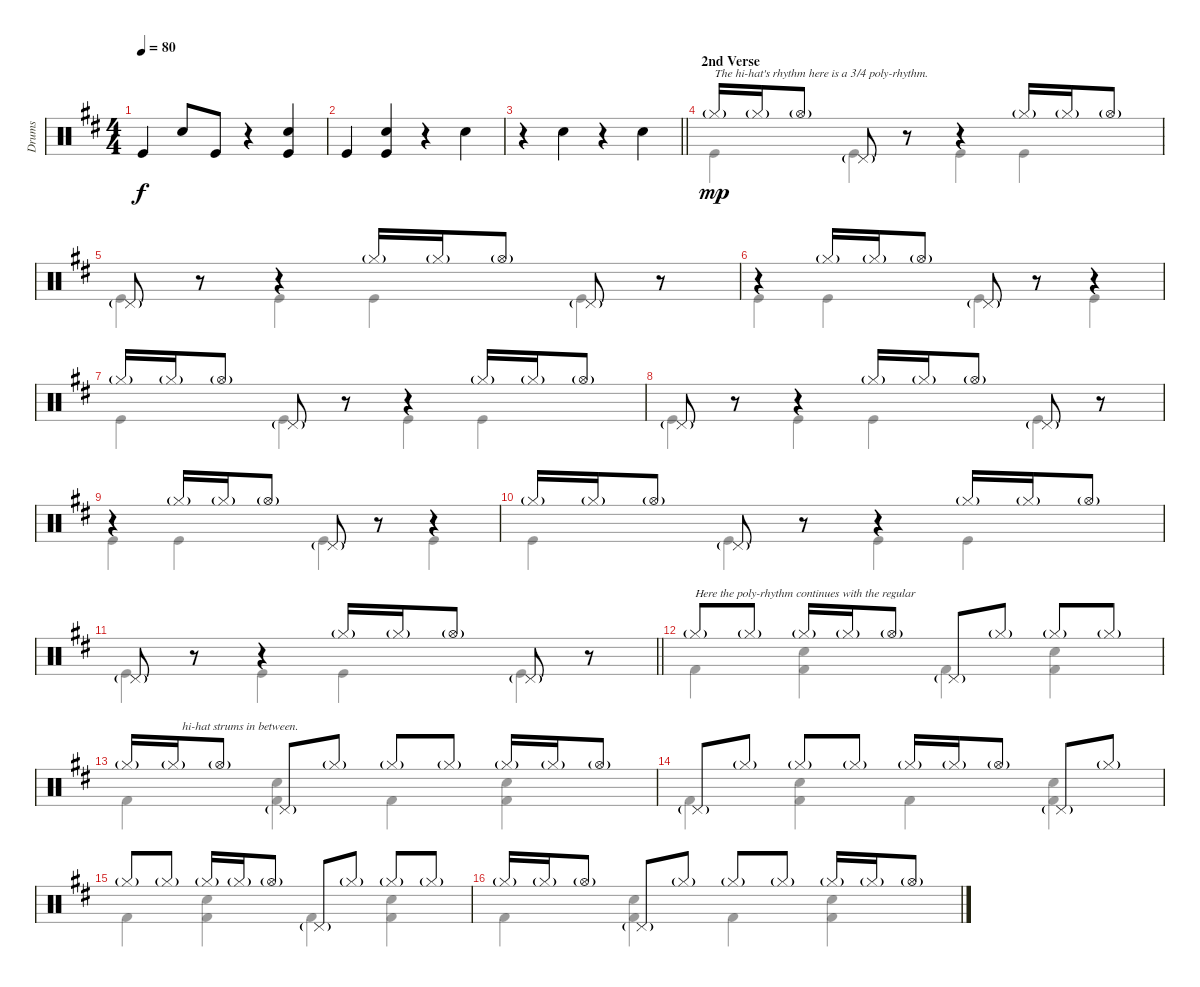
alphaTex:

\track ("Drums" "Drums") {instrument percussion}
\staff {score}
\articulation defaults
\voice
\ts (4 4)
\tempo 80
\clef neutral
\ks d "Kick (hit)".4{dy f} "Snare (hit) 2".8 "Kick (hit)".8
r.4 ("Snare (hit) 2" "Kick (hit)").4 |
"Kick (hit)".4 ("Snare (hit) 2" "Kick (hit)").4 r.4 "Snare (hit) 2".4 |
\barLineRight lightlight
r.4 "Snare (hit) 2".4 r.4 "Snare (hit) 2".4 |
\section ("" "2nd Verse")
"Hi-Hat (closed)"{g}.16{txt "The hi-hat's rhythm here is a 3/4 poly-rhythm." dy mp} "Hi-Hat (closed)"{g}.16 "Hi-Hat (open)"{g}.8 "Pedal Hi-Hat (hit)"{g}.8 r.8 r.4 "Hi-Hat (closed)"{g}.16 "Hi-Hat (closed)"{g}.16 "Hi-Hat (open)"{g}.8 |
"Pedal Hi-Hat (hit)"{g}.8 r.8 r.4 "Hi-Hat (closed)"{g}.16 "Hi-Hat (closed)"{g}.16 "Hi-Hat (open)"{g}.8 "Pedal Hi-Hat (hit)"{g}.8 r.8 |
r.4 "Hi-Hat (closed)"{g}.16 "Hi-Hat (closed)"{g}.16 "Hi-Hat (open)"{g}.8 "Pedal Hi-Hat (hit)"{g}.8 r.8 r.4 |
"Hi-Hat (closed)"{g}.16 "Hi-Hat (closed)"{g}.16 "Hi-Hat (open)"{g}.8 "Pedal Hi-Hat (hit)"{g}.8 r.8 r.4 "Hi-Hat (closed)"{g}.16 "Hi-Hat (closed)"{g}.16 "Hi-Hat (open)"{g}.8 |
"Pedal Hi-Hat (hit)"{g}.8 r.8 r.4 "Hi-Hat (closed)"{g}.16 "Hi-Hat (closed)"{g}.16 "Hi-Hat (open)"{g}.8 "Pedal Hi-Hat (hit)"{g}.8 r.8 |
r.4 "Hi-Hat (closed)"{g}.16 "Hi-Hat (closed)"{g}.16 "Hi-Hat (open)"{g}.8 "Pedal Hi-Hat (hit)"{g}.8 r.8 r.4 |
"Hi-Hat (closed)"{g}.16 "Hi-Hat (closed)"{g}.16 "Hi-Hat (open)"{g}.8 "Pedal Hi-Hat (hit)"{g}.8 r.8 r.4 "Hi-Hat (closed)"{g}.16 "Hi-Hat (closed)"{g}.16 "Hi-Hat (open)"{g}.8 |
\barLineRight lightlight "Pedal Hi-Hat (hit)"{g}.8
r.8 r.4 "Hi-Hat (closed)"{g}.16 "Hi-Hat (closed)"{g}.16 "Hi-Hat (open)"{g}.8 "Pedal Hi-Hat (hit)"{g}.8 r.8 |
"Hi-Hat (closed)"{g}.8{txt "Here the poly-rhythm continues with the regular"} "Hi-Hat (closed)"{g}.8 "Hi-Hat (closed)"{g}.16 "Hi-Hat (closed)"{g}.16 "Hi-Hat (open)"{g}.8 "Pedal Hi-Hat (hit)"{g}.8 "Hi-Hat (closed)"{g}.8 "Hi-Hat (closed)"{g}.8 "Hi-Hat (closed)"{g}.8 |
"Hi-Hat (closed)"{g}.16 "Hi-Hat (closed)"{g}.16{txt "   hi-hat strums in between."} "Hi-Hat (open)"{g}.8 "Pedal Hi-Hat (hit)"{g}.8 "Hi-Hat (closed)"{g}.8 "Hi-Hat (closed)"{g}.8 "Hi-Hat (closed)"{g}.8 "Hi-Hat (closed)"{g}.16 "Hi-Hat (closed)"{g}.16 "Hi-Hat (open)"{g}.8 |
"Pedal Hi-Hat (hit)"{g}.8 "Hi-Hat (closed)"{g}.8 "Hi-Hat (closed)"{g}.8 "Hi-Hat (closed)"{g}.8 "Hi-Hat (closed)"{g}.16 "Hi-Hat (closed)"{g}.16 "Hi-Hat (open)"{g}.8 "Pedal Hi-Hat (hit)"{g}.8 "Hi-Hat (closed)"{g}.8 |
"Hi-Hat (closed)"{g}.8 "Hi-Hat (closed)"{g}.8 "Hi-Hat (closed)"{g}.16 "Hi-Hat (closed)"{g}.16 "Hi-Hat (open)"{g}.8 "Pedal Hi-Hat (hit)"{g}.8 "Hi-Hat (closed)"{g}.8 "Hi-Hat (closed)"{g}.8 "Hi-Hat (closed)"{g}.8 |
"Hi-Hat (closed)"{g}.16 "Hi-Hat (closed)"{g}.16 "Hi-Hat (open)"{g}.8 "Pedal Hi-Hat (hit)"{g}.8 "Hi-Hat (closed)"{g}.8 "Hi-Hat (closed)"{g}.8 "Hi-Hat (closed)"{g}.8 "Hi-Hat (closed)"{g}.16 "Hi-Hat (closed)"{g}.16 "Hi-Hat (open)"{g}.8
\voice
\clef neutral
\ottava regular
\simile none
\ks d
|
|
\barLineRight lightlight
|
"Kick (hit)".4 "Kick (hit)".4 "Kick (hit)".4 "Kick (hit)".4 |
"Kick (hit)".4 "Kick (hit)".4 "Kick (hit)".4 "Kick (hit)".4 |
"Kick (hit)".4 "Kick (hit)".4 "Kick (hit)".4 "Kick (hit)".4 |
"Kick (hit)".4 "Kick (hit)".4 "Kick (hit)".4 "Kick (hit)".4 |
"Kick (hit)".4 "Kick (hit)".4 "Kick (hit)".4 "Kick (hit)".4 |
"Kick (hit)".4 "Kick (hit)".4 "Kick (hit)".4 "Kick (hit)".4 |
"Kick (hit)".4 "Kick (hit)".4 "Kick (hit)".4 "Kick (hit)".4 |
\barLineRight lightlight "Kick (hit)".4 "Kick (hit)".4 "Kick (hit)".4 "Kick (hit)".4
|
"Kick (hit) 2".4 ("Snare (hit) 2" "Kick (hit) 2").4 "Kick (hit) 2".4 ("Snare (hit) 2" "Kick (hit) 2").4 |
"Kick (hit) 2".4 ("Snare (hit) 2" "Kick (hit) 2").4 "Kick (hit) 2".4 ("Snare (hit) 2" "Kick (hit) 2").4 |
"Kick (hit) 2".4 ("Snare (hit) 2" "Kick (hit) 2").4 "Kick (hit) 2".4 ("Snare (hit) 2" "Kick (hit) 2").4 |
"Kick (hit) 2".4 ("Snare (hit) 2" "Kick (hit) 2").4 "Kick (hit) 2".4 ("Snare (hit) 2" "Kick (hit) 2").4 |
"Kick (hit) 2".4 ("Snare (hit) 2" "Kick (hit) 2").4 "Kick (hit) 2".4 ("Snare (hit) 2" "Kick (hit) 2").4
